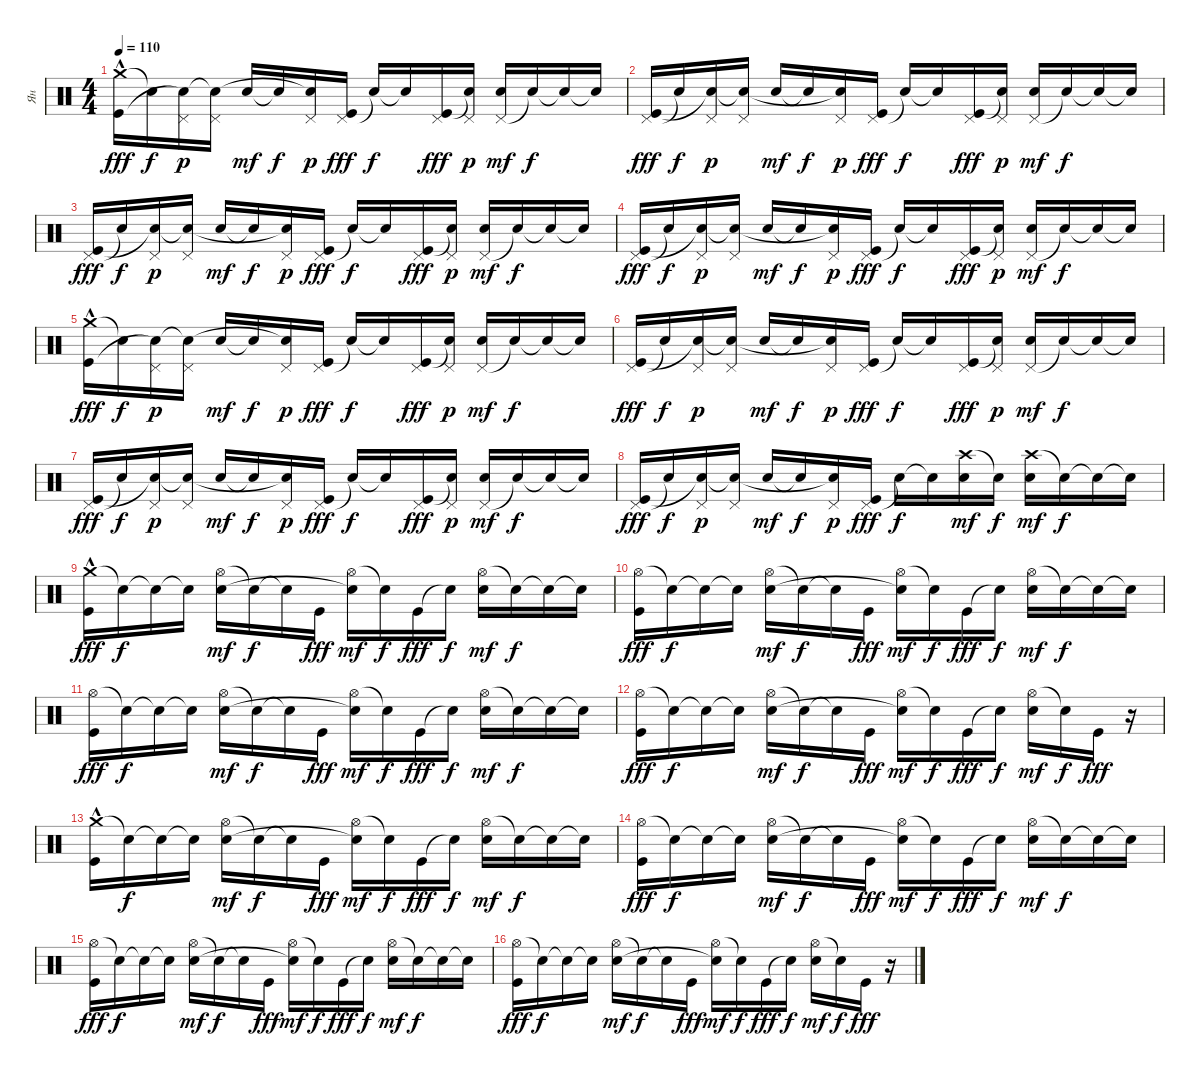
\track ("Ян " "Ян ") {instrument percussion}
\staff
\articulation defaults
\ts (4 4)
\tempo 110
\clef neutral
\ks c
("Crash medium (hit)" "Kick (hit)"{hac}).16{dy fff} "Snare (hit)"{t}.16{dy f} ("Pedal Hi-Hat (hit)" "Snare (hit)"{t}).16{dy p} ("Pedal Hi-Hat (hit)" "Snare (hit)"{t}).16 "Snare (hit) 2".16{dy mf} "Snare (hit)"{t}.16{dy f} ("Pedal Hi-Hat (hit)" "Snare (hit)"{t}).16{dy p} ("Pedal Hi-Hat (hit)" "Kick (hit)").16{dy fff} "Snare (hit)"{t}.16{dy f} "Snare (hit)"{t}.16 ("Pedal Hi-Hat (hit)" "Kick (hit)").16{dy fff} ("Pedal Hi-Hat (hit)" "Snare (hit)"{t}).16{dy p} ("Pedal Hi-Hat (hit)" "Snare (hit) 2").16{dy mf} "Snare (hit)"{t}.16{dy f} "Snare (hit)"{t}.16 "Snare (hit)"{t}.16 |
("Pedal Hi-Hat (hit)" "Kick (hit)").16{dy fff} "Snare (hit)"{t}.16{dy f} ("Pedal Hi-Hat (hit)" "Snare (hit)"{t}).16{dy p} ("Pedal Hi-Hat (hit)" "Snare (hit)"{t}).16 "Snare (hit) 2".16{dy mf} "Snare (hit)"{t}.16{dy f} ("Pedal Hi-Hat (hit)" "Snare (hit)"{t}).16{dy p} ("Pedal Hi-Hat (hit)" "Kick (hit)").16{dy fff} "Snare (hit)"{t}.16{dy f} "Snare (hit)"{t}.16 ("Pedal Hi-Hat (hit)" "Kick (hit)").16{dy fff} ("Pedal Hi-Hat (hit)" "Snare (hit)"{t}).16{dy p} ("Pedal Hi-Hat (hit)" "Snare (hit) 2").16{dy mf} "Snare (hit)"{t}.16{dy f} "Snare (hit)"{t}.16 "Snare (hit)"{t}.16 |
("Pedal Hi-Hat (hit)" "Kick (hit)").16{dy fff} "Snare (hit)"{t}.16{dy f} ("Pedal Hi-Hat (hit)" "Snare (hit)"{t}).16{dy p} ("Pedal Hi-Hat (hit)" "Snare (hit)"{t}).16 "Snare (hit) 2".16{dy mf} "Snare (hit)"{t}.16{dy f} ("Pedal Hi-Hat (hit)" "Snare (hit)"{t}).16{dy p} ("Pedal Hi-Hat (hit)" "Kick (hit)").16{dy fff} "Snare (hit)"{t}.16{dy f} "Snare (hit)"{t}.16 ("Pedal Hi-Hat (hit)" "Kick (hit)").16{dy fff} ("Pedal Hi-Hat (hit)" "Snare (hit)"{t}).16{dy p} ("Pedal Hi-Hat (hit)" "Snare (hit) 2").16{dy mf} "Snare (hit)"{t}.16{dy f} "Snare (hit)"{t}.16 "Snare (hit)"{t}.16 |
("Pedal Hi-Hat (hit)" "Kick (hit)").16{dy fff} "Snare (hit)"{t}.16{dy f} ("Pedal Hi-Hat (hit)" "Snare (hit)"{t}).16{dy p} ("Pedal Hi-Hat (hit)" "Snare (hit)"{t}).16 "Snare (hit) 2".16{dy mf} "Snare (hit)"{t}.16{dy f} ("Pedal Hi-Hat (hit)" "Snare (hit)"{t}).16{dy p} ("Pedal Hi-Hat (hit)" "Kick (hit)").16{dy fff} "Snare (hit)"{t}.16{dy f} "Snare (hit)"{t}.16 ("Pedal Hi-Hat (hit)" "Kick (hit)").16{dy fff} ("Pedal Hi-Hat (hit)" "Snare (hit)"{t}).16{dy p} ("Pedal Hi-Hat (hit)" "Snare (hit) 2").16{dy mf} "Snare (hit)"{t}.16{dy f} "Snare (hit)"{t}.16 "Snare (hit)"{t}.16 |
("Crash medium (hit)" "Kick (hit)"{hac}).16{dy fff} "Snare (hit)"{t}.16{dy f} ("Pedal Hi-Hat (hit)" "Snare (hit)"{t}).16{dy p} ("Pedal Hi-Hat (hit)" "Snare (hit)"{t}).16 "Snare (hit) 2".16{dy mf} "Snare (hit)"{t}.16{dy f} ("Pedal Hi-Hat (hit)" "Snare (hit)"{t}).16{dy p} ("Pedal Hi-Hat (hit)" "Kick (hit)").16{dy fff} "Snare (hit)"{t}.16{dy f} "Snare (hit)"{t}.16 ("Pedal Hi-Hat (hit)" "Kick (hit)").16{dy fff} ("Pedal Hi-Hat (hit)" "Snare (hit)"{t}).16{dy p} ("Pedal Hi-Hat (hit)" "Snare (hit) 2").16{dy mf} "Snare (hit)"{t}.16{dy f} "Snare (hit)"{t}.16 "Snare (hit)"{t}.16 |
("Pedal Hi-Hat (hit)" "Kick (hit)").16{dy fff} "Snare (hit)"{t}.16{dy f} ("Pedal Hi-Hat (hit)" "Snare (hit)"{t}).16{dy p} ("Pedal Hi-Hat (hit)" "Snare (hit)"{t}).16 "Snare (hit) 2".16{dy mf} "Snare (hit)"{t}.16{dy f} ("Pedal Hi-Hat (hit)" "Snare (hit)"{t}).16{dy p} ("Pedal Hi-Hat (hit)" "Kick (hit)").16{dy fff} "Snare (hit)"{t}.16{dy f} "Snare (hit)"{t}.16 ("Pedal Hi-Hat (hit)" "Kick (hit)").16{dy fff} ("Pedal Hi-Hat (hit)" "Snare (hit)"{t}).16{dy p} ("Pedal Hi-Hat (hit)" "Snare (hit) 2").16{dy mf} "Snare (hit)"{t}.16{dy f} "Snare (hit)"{t}.16 "Snare (hit)"{t}.16 |
("Pedal Hi-Hat (hit)" "Kick (hit)").16{dy fff} "Snare (hit)"{t}.16{dy f} ("Pedal Hi-Hat (hit)" "Snare (hit)"{t}).16{dy p} ("Pedal Hi-Hat (hit)" "Snare (hit)"{t}).16 "Snare (hit) 2".16{dy mf} "Snare (hit)"{t}.16{dy f} ("Pedal Hi-Hat (hit)" "Snare (hit)"{t}).16{dy p} ("Pedal Hi-Hat (hit)" "Kick (hit)").16{dy fff} "Snare (hit)"{t}.16{dy f} "Snare (hit)"{t}.16 ("Pedal Hi-Hat (hit)" "Kick (hit)").16{dy fff} ("Pedal Hi-Hat (hit)" "Snare (hit)"{t}).16{dy p} ("Pedal Hi-Hat (hit)" "Snare (hit) 2").16{dy mf} "Snare (hit)"{t}.16{dy f} "Snare (hit)"{t}.16 "Snare (hit)"{t}.16 |
("Pedal Hi-Hat (hit)" "Kick (hit)").16{dy fff} "Snare (hit)"{t}.16{dy f} ("Pedal Hi-Hat (hit)" "Snare (hit)"{t}).16{dy p} ("Pedal Hi-Hat (hit)" "Snare (hit)"{t}).16 "Snare (hit) 2".16{dy mf} "Snare (hit)"{t}.16{dy f} ("Pedal Hi-Hat (hit)" "Snare (hit)"{t}).16{dy p} ("Pedal Hi-Hat (hit)" "Kick (hit)").16{dy fff} "Snare (hit)"{t}.16{dy f} "Snare (hit)"{t}.16 ("Crash high (hit)" "Snare (hit) 2").16{dy mf} "Snare (hit)"{t}.16{dy f} ("Crash high (hit)" "Snare (hit) 2").16{dy mf} "Snare (hit)"{t}.16{dy f} "Snare (hit)"{t}.16 "Snare (hit)"{t}.16 |
("Crash medium (hit)" "Kick (hit)"{hac}).16{dy fff} "Snare (hit)"{t}.16{dy f} "Snare (hit)"{t}.16 "Snare (hit)"{t}.16 ("Hi-Hat (open)" "Snare (hit) 2").16{dy mf} "Snare (hit)"{t}.16{dy f} "Snare (hit)"{t}.16 "Kick (hit)".16{dy fff} ("Hi-Hat (open)" "Snare (hit)"{t}).16{dy mf} "Snare (hit)"{t}.16{dy f} "Kick (hit)".16{dy fff} "Snare (hit)"{t}.16{dy f} ("Hi-Hat (open)" "Snare (hit) 2").16{dy mf} "Snare (hit)"{t}.16{dy f} "Snare (hit)"{t}.16 "Snare (hit)"{t}.16 |
("Hi-Hat (open)" "Kick (hit)").16{dy fff} "Snare (hit)"{t}.16{dy f} "Snare (hit)"{t}.16 "Snare (hit)"{t}.16 ("Hi-Hat (open)" "Snare (hit) 2").16{dy mf} "Snare (hit)"{t}.16{dy f} "Snare (hit)"{t}.16 "Kick (hit)".16{dy fff} ("Hi-Hat (open)" "Snare (hit)"{t}).16{dy mf} "Snare (hit)"{t}.16{dy f} "Kick (hit)".16{dy fff} "Snare (hit)"{t}.16{dy f} ("Hi-Hat (open)" "Snare (hit) 2").16{dy mf} "Snare (hit)"{t}.16{dy f} "Snare (hit)"{t}.16 "Snare (hit)"{t}.16 |
("Hi-Hat (open)" "Kick (hit)").16{dy fff} "Snare (hit)"{t}.16{dy f} "Snare (hit)"{t}.16 "Snare (hit)"{t}.16 ("Hi-Hat (open)" "Snare (hit) 2").16{dy mf} "Snare (hit)"{t}.16{dy f} "Snare (hit)"{t}.16 "Kick (hit)".16{dy fff} ("Hi-Hat (open)" "Snare (hit)"{t}).16{dy mf} "Snare (hit)"{t}.16{dy f} "Kick (hit)".16{dy fff} "Snare (hit)"{t}.16{dy f} ("Hi-Hat (open)" "Snare (hit) 2").16{dy mf} "Snare (hit)"{t}.16{dy f} "Snare (hit)"{t}.16 "Snare (hit)"{t}.16 |
("Hi-Hat (open)" "Kick (hit)").16{dy fff} "Snare (hit)"{t}.16{dy f} "Snare (hit)"{t}.16 "Snare (hit)"{t}.16 ("Hi-Hat (open)" "Snare (hit) 2").16{dy mf} "Snare (hit)"{t}.16{dy f} "Snare (hit)"{t}.16 "Kick (hit)".16{dy fff} ("Hi-Hat (open)" "Snare (hit)"{t}).16{dy mf} "Snare (hit)"{t}.16{dy f} "Kick (hit)".16{dy fff} "Snare (hit)"{t}.16{dy f} ("Hi-Hat (open)" "Snare (hit) 2").16{dy mf} "Snare (hit)"{t}.16{dy f} "Kick (hit)".16{dy fff} r.16 |
("Crash medium (hit)" "Kick (hit)"{hac}).16 "Snare (hit)"{t}.16{dy f} "Snare (hit)"{t}.16 "Snare (hit)"{t}.16 ("Hi-Hat (open)" "Snare (hit) 2").16{dy mf} "Snare (hit)"{t}.16{dy f} "Snare (hit)"{t}.16 "Kick (hit)".16{dy fff} ("Hi-Hat (open)" "Snare (hit)"{t}).16{dy mf} "Snare (hit)"{t}.16{dy f} "Kick (hit)".16{dy fff} "Snare (hit)"{t}.16{dy f} ("Hi-Hat (open)" "Snare (hit) 2").16{dy mf} "Snare (hit)"{t}.16{dy f} "Snare (hit)"{t}.16 "Snare (hit)"{t}.16 |
("Hi-Hat (open)" "Kick (hit)").16{dy fff} "Snare (hit)"{t}.16{dy f} "Snare (hit)"{t}.16 "Snare (hit)"{t}.16 ("Hi-Hat (open)" "Snare (hit) 2").16{dy mf} "Snare (hit)"{t}.16{dy f} "Snare (hit)"{t}.16 "Kick (hit)".16{dy fff} ("Hi-Hat (open)" "Snare (hit)"{t}).16{dy mf} "Snare (hit)"{t}.16{dy f} "Kick (hit)".16{dy fff} "Snare (hit)"{t}.16{dy f} ("Hi-Hat (open)" "Snare (hit) 2").16{dy mf} "Snare (hit)"{t}.16{dy f} "Snare (hit)"{t}.16 "Snare (hit)"{t}.16 |
("Hi-Hat (open)" "Kick (hit)").16{dy fff} "Snare (hit)"{t}.16{dy f} "Snare (hit)"{t}.16 "Snare (hit)"{t}.16 ("Hi-Hat (open)" "Snare (hit) 2").16{dy mf} "Snare (hit)"{t}.16{dy f} "Snare (hit)"{t}.16 "Kick (hit)".16{dy fff} ("Hi-Hat (open)" "Snare (hit)"{t}).16{dy mf} "Snare (hit)"{t}.16{dy f} "Kick (hit)".16{dy fff} "Snare (hit)"{t}.16{dy f} ("Hi-Hat (open)" "Snare (hit) 2").16{dy mf} "Snare (hit)"{t}.16{dy f} "Snare (hit)"{t}.16 "Snare (hit)"{t}.16 |
("Hi-Hat (open)" "Kick (hit)").16{dy fff} "Snare (hit)"{t}.16{dy f} "Snare (hit)"{t}.16 "Snare (hit)"{t}.16 ("Hi-Hat (open)" "Snare (hit) 2").16{dy mf} "Snare (hit)"{t}.16{dy f} "Snare (hit)"{t}.16 "Kick (hit)".16{dy fff} ("Hi-Hat (open)" "Snare (hit)"{t}).16{dy mf} "Snare (hit)"{t}.16{dy f} "Kick (hit)".16{dy fff} "Snare (hit)"{t}.16{dy f} ("Hi-Hat (open)" "Snare (hit) 2").16{dy mf} "Snare (hit)"{t}.16{dy f} "Kick (hit)".16{dy fff} r.16
